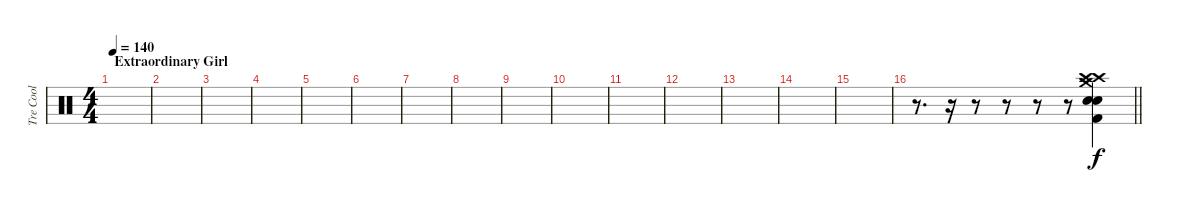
\track ("Tre Cool" "Tre Cool") {instrument percussion}
\staff {score}
\articulation defaults
\ts (4 4)
\section ("" "Extraordinary Girl")
\tempo 140
\tempo 120
\tempo 140
\clef neutral
\ks c
|
|
|
|
|
|
|
|
|
|
|
|
|
|
|
\barLineRight lightlight
r.8{d} r.16 r.8 r.8 r.8 r.8 ("Kick (hit) 2" "Electric Snare (hit)" "Crash high (hit)" "Crash high (hit)" "Crash medium (hit)" "Electric Snare (hit)").4
